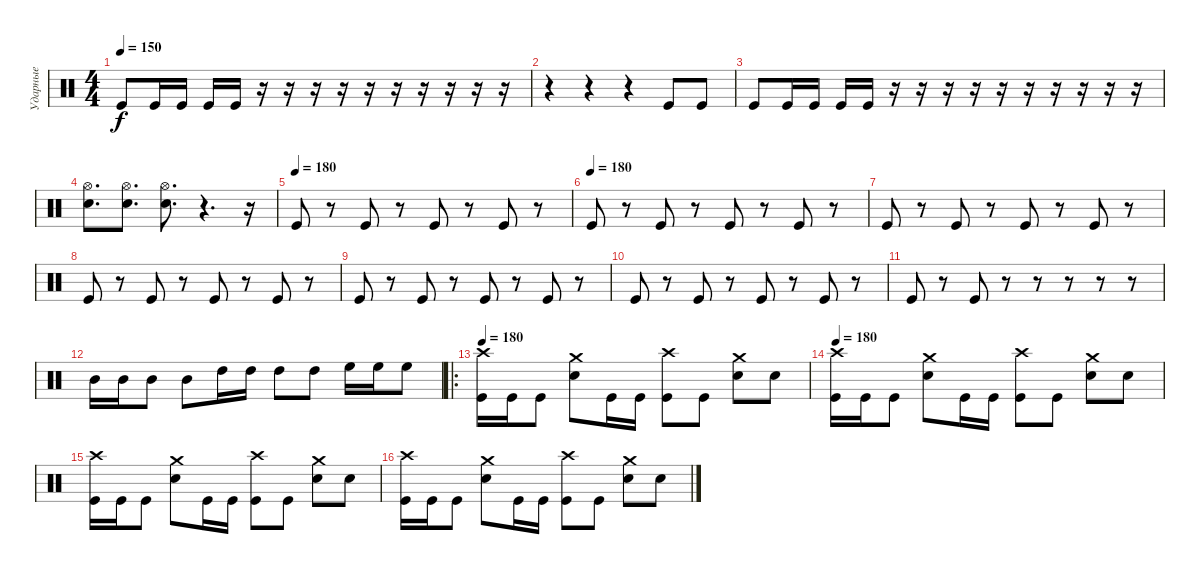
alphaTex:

\track ("Ударные" "Ударные") {instrument percussion}
\staff {score}
\articulation defaults
\ts (4 4)
\tempo 150
\clef neutral
\ks c "Kick (hit)".8{dy f} "Kick (hit)".16 "Kick (hit)".16 "Kick (hit)".16 "Kick (hit)".16
r.16 r.16 r.16 r.16 r.16 r.16 r.16 r.16 r.16 r.16 |
r.4 r.4 r.4 "Kick (hit)".8 "Kick (hit)".8 |
"Kick (hit)".8 "Kick (hit)".16 "Kick (hit)".16 "Kick (hit)".16 "Kick (hit)".16 r.16 r.16 r.16 r.16 r.16 r.16 r.16 r.16 r.16 r.16 |
("Hi-Hat (open)" "Snare (hit) 2").8{d} ("Hi-Hat (open)" "Snare (hit) 2").8{d} ("Hi-Hat (open)" "Snare (hit) 2").8{d} r.4{d} r.16 |
\tempo (180)
"Kick (hit)".8 r.8 "Kick (hit)".8 r.8 "Kick (hit)".8 r.8 "Kick (hit)".8 r.8 |
\tempo (180)
"Kick (hit)".8 r.8 "Kick (hit)".8 r.8 "Kick (hit)".8 r.8 "Kick (hit)".8 r.8 |
"Kick (hit)".8 r.8 "Kick (hit)".8 r.8 "Kick (hit)".8 r.8 "Kick (hit)".8 r.8 |
"Kick (hit)".8 r.8 "Kick (hit)".8 r.8 "Kick (hit)".8 r.8 "Kick (hit)".8 r.8 |
"Kick (hit)".8 r.8 "Kick (hit)".8 r.8 "Kick (hit)".8 r.8 "Kick (hit)".8 r.8 |
"Kick (hit)".8 r.8 "Kick (hit)".8 r.8 "Kick (hit)".8 r.8 "Kick (hit)".8 r.8 |
"Kick (hit)".8 r.8 "Kick (hit)".8 r.8 r.8 r.8 r.8 r.8 |
"Mid Tom (hit)".16 "Mid Tom (hit)".16 "Mid Tom (hit)".8 "Mid Tom (hit)".8 "High Tom (hit)".16 "High Tom (hit)".16 "High Tom (hit)".8 "High Tom (hit)".8 "High Floor Tom (hit)".16 "High Floor Tom (hit)".16 "High Floor Tom (hit)".8 |
\ro
\tempo 180
("Crash high (hit)" "Kick (hit)").16 "Kick (hit)".16 "Kick (hit)".8 ("Crash medium (hit)" "Snare (hit) 2").8 "Kick (hit)".16 "Kick (hit)".16 ("Crash high (hit)" "Kick (hit)").8 "Kick (hit)".8 ("Crash medium (hit)" "Snare (hit) 2").8 "Snare (hit) 2".8 |
\tempo 180
("Crash high (hit)" "Kick (hit)").16 "Kick (hit)".16 "Kick (hit)".8 ("Crash medium (hit)" "Snare (hit) 2").8 "Kick (hit)".16 "Kick (hit)".16 ("Crash high (hit)" "Kick (hit)").8 "Kick (hit)".8 ("Crash medium (hit)" "Snare (hit) 2").8 "Snare (hit) 2".8 |
("Crash high (hit)" "Kick (hit)").16 "Kick (hit)".16 "Kick (hit)".8 ("Crash medium (hit)" "Snare (hit) 2").8 "Kick (hit)".16 "Kick (hit)".16 ("Crash high (hit)" "Kick (hit)").8 "Kick (hit)".8 ("Crash medium (hit)" "Snare (hit) 2").8 "Snare (hit) 2".8 |
("Crash high (hit)" "Kick (hit)").16 "Kick (hit)".16 "Kick (hit)".8 ("Crash medium (hit)" "Snare (hit) 2").8 "Kick (hit)".16 "Kick (hit)".16 ("Crash high (hit)" "Kick (hit)").8 "Kick (hit)".8 ("Crash medium (hit)" "Snare (hit) 2").8 "Snare (hit) 2".8
